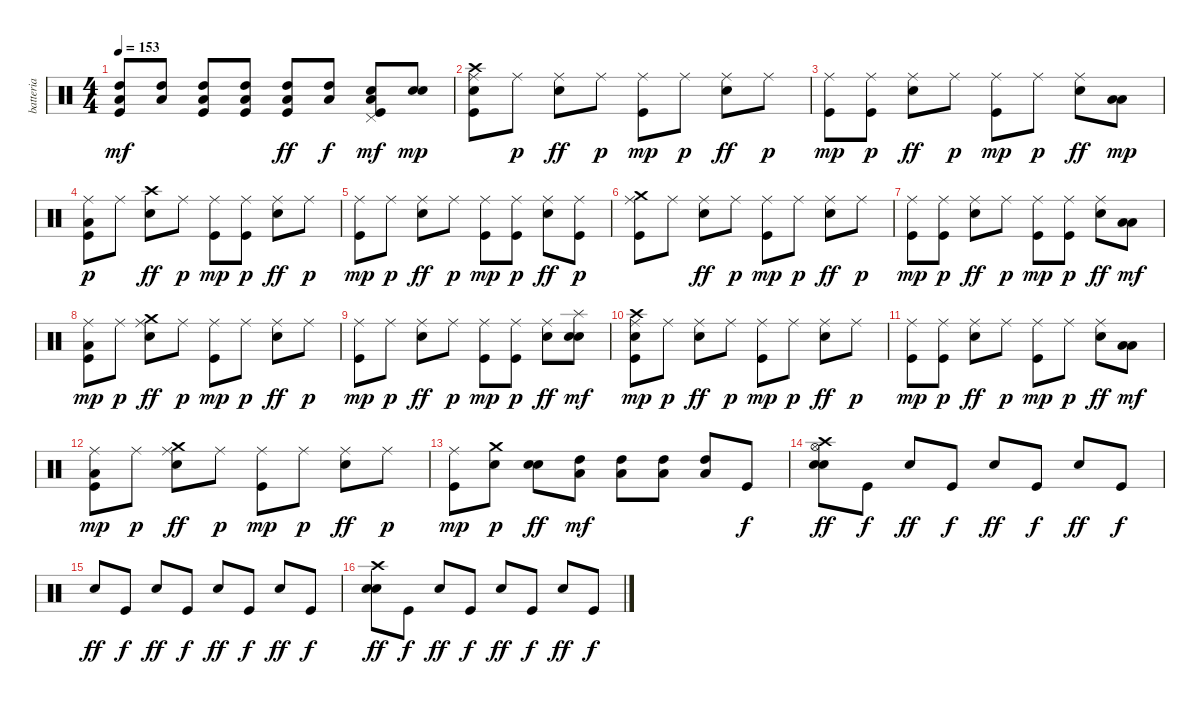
\track ("batteria" "batteria") {instrument percussion}
\staff {score}
\articulation defaults
\ts (4 4)
\tempo 153
\clef neutral
\ks c
("Kick (hit)" "High Tom (hit)" "Low Tom (hit)").8{dy mf} ("High Tom (hit)" "Low Tom (hit)").8 ("Kick (hit)" "High Tom (hit)" "Low Tom (hit)").8 ("Kick (hit)" "High Tom (hit)" "Low Tom (hit)").8 ("Kick (hit)" "High Tom (hit)" "Low Tom (hit)").8{dy ff} ("High Tom (hit)" "Low Tom (hit)").8{dy f} ("Kick (hit)" "Pedal Hi-Hat (hit)" "Electric Snare (hit)" "Low Tom (hit)").8{dy mf} ("Electric Snare (hit)" "Electric Snare (hit)").8{dy mp} |
("Electric Snare (hit)" "Kick (hit)" "Crash high (hit)" "Ride (middle)").8 "Ride (middle)".8{dy p} ("Ride (middle)" "Electric Snare (hit)").8{dy ff} "Ride (middle)".8{dy p} ("Kick (hit)" "Ride (middle)").8{dy mp} "Ride (middle)".8{dy p} ("Ride (middle)" "Electric Snare (hit)").8{dy ff} "Ride (middle)".8{dy p} |
("Kick (hit)" "Ride (middle)").8{dy mp} ("Kick (hit)" "Ride (middle)").8{dy p} ("Ride (middle)" "Electric Snare (hit)").8{dy ff} "Ride (middle)".8{dy p} ("Kick (hit)" "Ride (middle)").8{dy mp} "Ride (middle)".8{dy p} ("Ride (middle)" "Electric Snare (hit)").8{dy ff} ("Low Tom (hit)" "Low Tom (hit)").8{dy mp} |
("Kick (hit)" "Low Floor Tom (hit)" "Ride (middle)").8{dy p} "Ride (middle)".8 ("Crash high (hit)" "Electric Snare (hit)").8{dy ff} "Ride (middle)".8{dy p} ("Kick (hit)" "Ride (middle)").8{dy mp} ("Kick (hit)" "Ride (middle)").8{dy p} ("Ride (middle)" "Electric Snare (hit)").8{dy ff} "Ride (middle)".8{dy p} |
("Kick (hit)" "Ride (middle)").8{dy mp} "Ride (middle)".8{dy p} ("Ride (middle)" "Electric Snare (hit)").8{dy ff} "Ride (middle)".8{dy p} ("Kick (hit)" "Ride (middle)").8{dy mp} ("Kick (hit)" "Ride (middle)").8{dy p} ("Ride (middle)" "Electric Snare (hit)").8{dy ff} ("Kick (hit)" "Ride (middle)").8{dy p} |
("Kick (hit)" "Ride (middle)" "Crash medium (hit)").8 "Ride (middle)".8 ("Ride (middle)" "Electric Snare (hit)").8{dy ff} "Ride (middle)".8{dy p} ("Kick (hit)" "Ride (middle)").8{dy mp} "Ride (middle)".8{dy p} ("Ride (middle)" "Electric Snare (hit)").8{dy ff} "Ride (middle)".8{dy p} |
("Kick (hit)" "Ride (middle)").8{dy mp} ("Kick (hit)" "Ride (middle)").8{dy p} ("Ride (middle)" "Electric Snare (hit)").8{dy ff} "Ride (middle)".8{dy p} ("Kick (hit)" "Ride (middle)").8{dy mp} ("Kick (hit)" "Ride (middle)").8{dy p} ("Ride (middle)" "Electric Snare (hit)").8{dy ff} ("Low Tom (hit)" "Low Tom (hit)").8{dy mf} |
("Kick (hit)" "Low Floor Tom (hit)" "Ride (middle)").8{dy mp} "Ride (middle)".8{dy p} ("Ride (middle)" "Crash medium (hit)" "Electric Snare (hit)").8{dy ff} "Ride (middle)".8{dy p} ("Kick (hit)" "Ride (middle)").8{dy mp} "Ride (middle)".8{dy p} ("Ride (middle)" "Electric Snare (hit)").8{dy ff} "Ride (middle)".8{dy p} |
("Kick (hit)" "Ride (middle)").8{dy mp} "Ride (middle)".8{dy p} ("Ride (middle)" "Electric Snare (hit)").8{dy ff} "Ride (middle)".8{dy p} ("Kick (hit)" "Ride (middle)").8{dy mp} ("Kick (hit)" "Ride (middle)").8{dy p} ("Ride (middle)" "Electric Snare (hit)").8{dy ff} ("Electric Snare (hit)" "Splash (hit)" "Electric Snare (hit)").8{dy mf} |
("Electric Snare (hit)" "Kick (hit)" "Crash high (hit)" "Ride (middle)").8{dy mp} "Ride (middle)".8{dy p} ("Ride (middle)" "Electric Snare (hit)").8{dy ff} "Ride (middle)".8{dy p} ("Kick (hit)" "Ride (middle)").8{dy mp} "Ride (middle)".8{dy p} ("Ride (middle)" "Electric Snare (hit)").8{dy ff} "Ride (middle)".8{dy p} |
("Kick (hit)" "Ride (middle)").8{dy mp} ("Kick (hit)" "Ride (middle)").8{dy p} ("Ride (middle)" "Electric Snare (hit)").8{dy ff} "Ride (middle)".8{dy p} ("Kick (hit)" "Ride (middle)").8{dy mp} "Ride (middle)".8{dy p} ("Ride (middle)" "Electric Snare (hit)").8{dy ff} ("Low Tom (hit)" "Low Tom (hit)").8{dy mf} |
("Kick (hit)" "Low Floor Tom (hit)" "Ride (middle)").8{dy mp} "Ride (middle)".8{dy p} ("Ride (middle)" "Crash medium (hit)" "Electric Snare (hit)").8{dy ff} "Ride (middle)".8{dy p} ("Kick (hit)" "Ride (middle)").8{dy mp} "Ride (middle)".8{dy p} ("Ride (middle)" "Electric Snare (hit)").8{dy ff} "Ride (middle)".8{dy p} |
("Kick (hit)" "Ride (middle)").8{dy mp} ("Crash medium (hit)" "Electric Snare (hit)").8{dy p} ("Electric Snare (hit)" "Electric Snare (hit)").8{dy ff} ("High Tom (hit)" "Low Tom (hit)").8{dy mf} ("High Tom (hit)" "Low Tom (hit)").8 ("High Tom (hit)" "Low Tom (hit)").8 ("High Tom (hit)" "Low Tom (hit)").8 "Kick (hit)".8{dy f} |
("Electric Snare (hit)" "Hi-Hat (open)" "Crash high (hit)" "Electric Snare (hit)").8{dy ff} "Kick (hit)".8{dy f} "Electric Snare (hit)".8{dy ff} "Kick (hit)".8{dy f} "Electric Snare (hit)".8{dy ff} "Kick (hit)".8{dy f} "Electric Snare (hit)".8{dy ff} "Kick (hit)".8{dy f} |
"Electric Snare (hit)".8{dy ff} "Kick (hit)".8{dy f} "Electric Snare (hit)".8{dy ff} "Kick (hit)".8{dy f} "Electric Snare (hit)".8{dy ff} "Kick (hit)".8{dy f} "Electric Snare (hit)".8{dy ff} "Kick (hit)".8{dy f} |
("Electric Snare (hit)" "Crash high (hit)" "Electric Snare (hit)").8{dy ff} "Kick (hit)".8{dy f} "Electric Snare (hit)".8{dy ff} "Kick (hit)".8{dy f} "Electric Snare (hit)".8{dy ff} "Kick (hit)".8{dy f} "Electric Snare (hit)".8{dy ff} "Kick (hit)".8{dy f}
